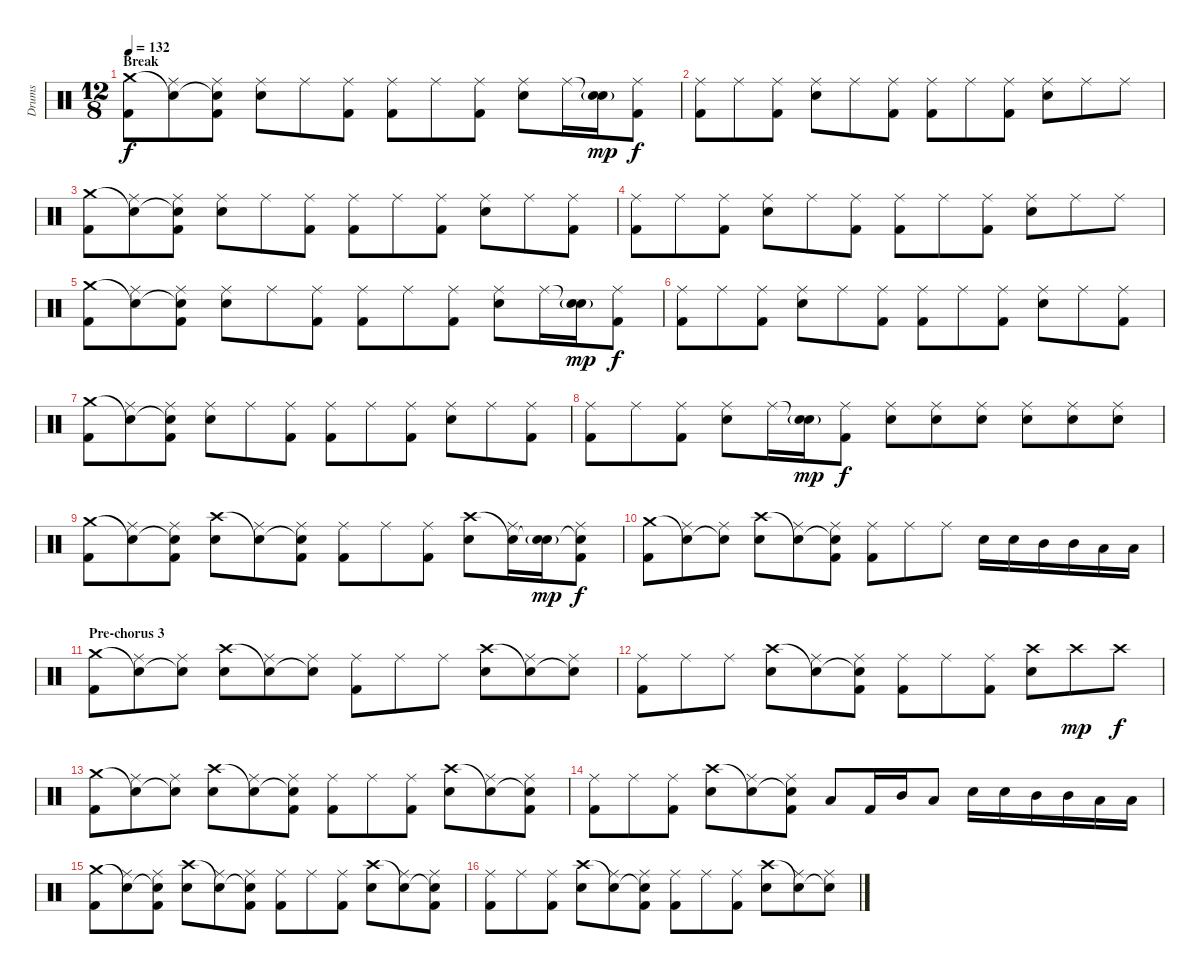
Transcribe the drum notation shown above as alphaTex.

\track ("Drums" "Drums") {instrument percussion}
\staff {score}
\articulation defaults
\ts (12 8)
\section ("" "Break")
\tempo 132
\clef neutral
\ks c
("Crash medium (hit)" "Kick (hit) 2").8{dy f} ("Snare (hit)"{t} "Ride (middle)").8 ("Snare (hit)"{t} "Ride (middle)" "Kick (hit) 2").8 ("Ride (middle)" "Electric Snare (hit)").8 "Ride (middle)".8 ("Ride (middle)" "Kick (hit) 2").8 ("Ride (middle)" "Kick (hit) 2").8 "Ride (middle)".8 ("Ride (middle)" "Kick (hit) 2").8 ("Ride (middle)" "Electric Snare (hit)").8 "Ride (middle)".16 ("Snare (hit)"{t} "Electric Snare (hit)"{g}).16{dy mp} ("Ride (middle)" "Kick (hit) 2").8{dy f} |
("Ride (middle)" "Kick (hit) 2").8 "Ride (middle)".8 ("Ride (middle)" "Kick (hit) 2").8 ("Ride (middle)" "Electric Snare (hit)").8 "Ride (middle)".8 ("Ride (middle)" "Kick (hit) 2").8 ("Ride (middle)" "Kick (hit) 2").8 "Ride (middle)".8 ("Ride (middle)" "Kick (hit) 2").8 ("Ride (middle)" "Electric Snare (hit)").8 "Ride (middle)".8 "Ride (middle)".8 |
("Crash medium (hit)" "Kick (hit) 2").8 ("Snare (hit)"{t} "Ride (middle)").8 ("Snare (hit)"{t} "Ride (middle)" "Kick (hit) 2").8 ("Ride (middle)" "Electric Snare (hit)").8 "Ride (middle)".8 ("Ride (middle)" "Kick (hit) 2").8 ("Ride (middle)" "Kick (hit) 2").8 "Ride (middle)".8 ("Ride (middle)" "Kick (hit) 2").8 ("Ride (middle)" "Electric Snare (hit)").8 "Ride (middle)".8 ("Ride (middle)" "Kick (hit) 2").8 |
("Ride (middle)" "Kick (hit) 2").8 "Ride (middle)".8 ("Ride (middle)" "Kick (hit) 2").8 ("Ride (middle)" "Electric Snare (hit)").8 "Ride (middle)".8 ("Ride (middle)" "Kick (hit) 2").8 ("Ride (middle)" "Kick (hit) 2").8 "Ride (middle)".8 ("Ride (middle)" "Kick (hit) 2").8 ("Ride (middle)" "Electric Snare (hit)").8 "Ride (middle)".8 "Ride (middle)".8 |
("Crash medium (hit)" "Kick (hit) 2").8 ("Snare (hit)"{t} "Ride (middle)").8 ("Snare (hit)"{t} "Ride (middle)" "Kick (hit) 2").8 ("Ride (middle)" "Electric Snare (hit)").8 "Ride (middle)".8 ("Ride (middle)" "Kick (hit) 2").8 ("Ride (middle)" "Kick (hit) 2").8 "Ride (middle)".8 ("Ride (middle)" "Kick (hit) 2").8 ("Ride (middle)" "Electric Snare (hit)").8 "Ride (middle)".16 ("Snare (hit)"{t} "Electric Snare (hit)"{g}).16{dy mp} ("Ride (middle)" "Kick (hit) 2").8{dy f} |
("Ride (middle)" "Kick (hit) 2").8 "Ride (middle)".8 ("Ride (middle)" "Kick (hit) 2").8 ("Ride (middle)" "Electric Snare (hit)").8 "Ride (middle)".8 ("Ride (middle)" "Kick (hit) 2").8 ("Ride (middle)" "Kick (hit) 2").8 "Ride (middle)".8 ("Ride (middle)" "Kick (hit) 2").8 ("Ride (middle)" "Electric Snare (hit)").8 "Ride (middle)".8 ("Ride (middle)" "Kick (hit) 2").8 |
("Crash medium (hit)" "Kick (hit) 2").8 ("Snare (hit)"{t} "Ride (middle)").8 ("Snare (hit)"{t} "Ride (middle)" "Kick (hit) 2").8 ("Ride (middle)" "Electric Snare (hit)").8 "Ride (middle)".8 ("Ride (middle)" "Kick (hit) 2").8 ("Ride (middle)" "Kick (hit) 2").8 "Ride (middle)".8 ("Ride (middle)" "Kick (hit) 2").8 ("Ride (middle)" "Electric Snare (hit)").8 "Ride (middle)".8 ("Ride (middle)" "Kick (hit) 2").8 |
("Ride (middle)" "Kick (hit) 2").8 "Ride (middle)".8 ("Ride (middle)" "Kick (hit) 2").8 ("Ride (middle)" "Electric Snare (hit)").8 "Ride (middle)".16 ("Snare (hit)"{t} "Electric Snare (hit)"{g}).16{dy mp} ("Ride (middle)" "Kick (hit) 2").8{dy f} ("Ride (middle)" "Electric Snare (hit)").8 ("Ride (middle)" "Electric Snare (hit)").8 ("Ride (middle)" "Electric Snare (hit)").8 ("Ride (middle)" "Electric Snare (hit)").8 ("Ride (middle)" "Electric Snare (hit)").8 ("Ride (middle)" "Electric Snare (hit)").8 |
("Crash medium (hit)" "Kick (hit) 2").8 ("Snare (hit)"{t} "Ride (middle)").8 ("Snare (hit)"{t} "Ride (middle)" "Kick (hit) 2").8 ("Crash high (hit)" "Electric Snare (hit)").8 ("Snare (hit)"{t} "Ride (middle)").8 ("Snare (hit)"{t} "Ride (middle)" "Kick (hit) 2").8 ("Ride (middle)" "Kick (hit) 2").8 "Ride (middle)".8 ("Ride (middle)" "Kick (hit) 2").8 ("Crash high (hit)" "Electric Snare (hit)").8 ("Snare (hit)"{t} "Ride (middle)").16 ("Snare (hit)"{t} "Electric Snare (hit)"{g}).16{dy mp} ("Snare (hit)"{t} "Ride (middle)" "Kick (hit) 2").8{dy f} |
("Crash medium (hit)" "Kick (hit) 2").8 ("Snare (hit)"{t} "Ride (middle)").8 ("Snare (hit)"{t} "Ride (middle)").8 ("Crash high (hit)" "Electric Snare (hit)").8 ("Snare (hit)"{t} "Ride (middle)").8 ("Snare (hit)"{t} "Ride (middle)" "Kick (hit) 2").8 ("Ride (middle)" "Kick (hit) 2").8 "Ride (middle)".8 "Ride (middle)".8 "Electric Snare (hit)".16 "Electric Snare (hit)".16 "Mid Tom (hit)".16 "Mid Tom (hit)".16 "Low Tom (hit)".16 "Low Tom (hit)".16 |
\section ("" "Pre-chorus 3")
("Crash medium (hit)" "Kick (hit) 2").8 ("Snare (hit)"{t} "Ride (middle)").8 ("Snare (hit)"{t} "Ride (middle)").8 ("Crash high (hit)" "Electric Snare (hit)").8 ("Snare (hit)"{t} "Ride (middle)").8 ("Snare (hit)"{t} "Ride (middle)").8 ("Ride (middle)" "Kick (hit) 2").8 "Ride (middle)".8 "Ride (middle)".8 ("Crash high (hit)" "Electric Snare (hit)").8 ("Snare (hit)"{t} "Ride (middle)").8 ("Snare (hit)"{t} "Ride (middle)").8 |
("Ride (middle)" "Kick (hit) 2").8 "Ride (middle)".8 "Ride (middle)".8 ("Crash high (hit)" "Electric Snare (hit)").8 ("Snare (hit)"{t} "Ride (middle)").8 ("Snare (hit)"{t} "Ride (middle)" "Kick (hit) 2").8 ("Ride (middle)" "Kick (hit) 2").8 "Ride (middle)".8 ("Ride (middle)" "Kick (hit) 2").8 ("Crash high (hit)" "Electric Snare (hit)").8 "Crash high (hit)".8{dy mp} "Crash high (hit)".8{dy f} |
("Crash medium (hit)" "Kick (hit) 2").8 ("Snare (hit)"{t} "Ride (middle)").8 ("Snare (hit)"{t} "Ride (middle)").8 ("Crash high (hit)" "Electric Snare (hit)").8 ("Snare (hit)"{t} "Ride (middle)").8 ("Snare (hit)"{t} "Ride (middle)" "Kick (hit) 2").8 ("Ride (middle)" "Kick (hit) 2").8 "Ride (middle)".8 ("Ride (middle)" "Kick (hit) 2").8 ("Crash high (hit)" "Electric Snare (hit)").8 ("Snare (hit)"{t} "Ride (middle)").8 ("Snare (hit)"{t} "Ride (middle)" "Kick (hit) 2").8 |
("Ride (middle)" "Kick (hit) 2").8 "Ride (middle)".8 ("Ride (middle)" "Kick (hit) 2").8 ("Crash high (hit)" "Electric Snare (hit)").8 ("Snare (hit)"{t} "Ride (middle)").8 ("Snare (hit)"{t} "Ride (middle)" "Kick (hit) 2").8 "Low Tom (hit)".8 "Kick (hit) 2".16 "Mid Tom (hit)".16 "Low Tom (hit)".8 "Electric Snare (hit)".16 "Electric Snare (hit)".16 "Mid Tom (hit)".16 "Mid Tom (hit)".16 "Low Tom (hit)".16 "Low Tom (hit)".16 |
("Crash medium (hit)" "Kick (hit) 2").8 ("Snare (hit)"{t} "Ride (middle)").8 ("Snare (hit)"{t} "Ride (middle)" "Kick (hit) 2").8 ("Crash high (hit)" "Electric Snare (hit)").8 ("Snare (hit)"{t} "Ride (middle)").8 ("Snare (hit)"{t} "Ride (middle)" "Kick (hit) 2").8 ("Ride (middle)" "Kick (hit) 2").8 "Ride (middle)".8 ("Ride (middle)" "Kick (hit) 2").8 ("Crash high (hit)" "Electric Snare (hit)").8 ("Snare (hit)"{t} "Ride (middle)").8 ("Snare (hit)"{t} "Ride (middle)" "Kick (hit) 2").8 |
("Ride (middle)" "Kick (hit) 2").8 "Ride (middle)".8 ("Ride (middle)" "Kick (hit) 2").8 ("Crash high (hit)" "Electric Snare (hit)").8 ("Snare (hit)"{t} "Ride (middle)").8 ("Snare (hit)"{t} "Ride (middle)" "Kick (hit) 2").8 ("Ride (middle)" "Kick (hit) 2").8 "Ride (middle)".8 ("Ride (middle)" "Kick (hit) 2").8 ("Crash high (hit)" "Electric Snare (hit)").8 ("Snare (hit)"{t} "Ride (middle)").8 ("Snare (hit)"{t} "Ride (middle)").8
